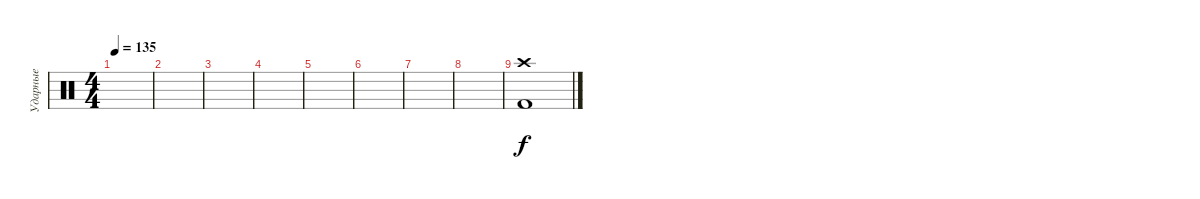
\track ("Ударные" "Ударные") {instrument percussion}
\staff {score}
\articulation defaults
\ts (4 4)
\tempo 135
\clef neutral
\ks c
|
|
|
|
|
|
|
|
("Crash high (hit)" "Kick (hit) 2").1
